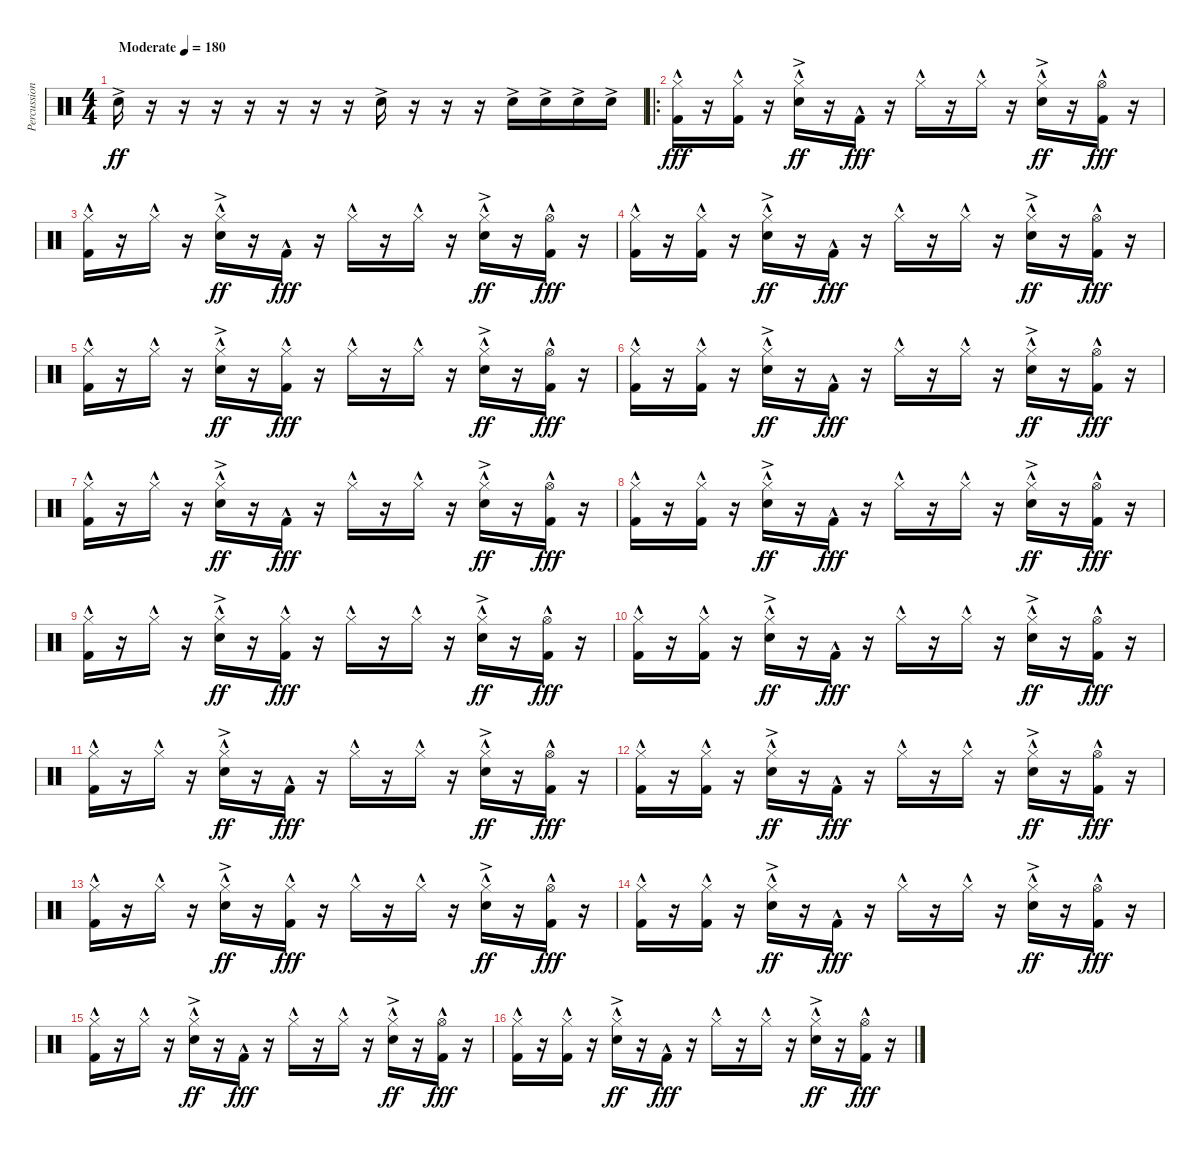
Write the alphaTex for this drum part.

\track ("Percussion" "Percussion") {instrument percussion}
\staff {score}
\articulation defaults
\ts (4 4)
\tempo (180 "Moderate")
\clef neutral
\ks c "Snare (hit) 2"{ac}.16{dy ff}
r.16 r.16 r.16 r.16 r.16 r.16 r.16 "Snare (hit) 2"{ac}.16 r.16 r.16 r.16 "Snare (hit) 2"{ac}.16 "Snare (hit) 2"{ac}.16 "Snare (hit) 2"{ac}.16 "Snare (hit) 2"{ac}.16 |
\ro
("Hi-Hat (closed)"{hac} "Kick (hit) 2"{hac}).16{dy fff} r.16 ("Hi-Hat (closed)"{hac} "Kick (hit) 2"{hac}).16 r.16 ("Hi-Hat (closed)"{hac} "Snare (hit) 2"{ac}).16{dy ff} r.16 "Kick (hit) 2"{hac}.16{dy fff} r.16 "Hi-Hat (closed)"{hac}.16 r.16 "Hi-Hat (closed)"{hac}.16 r.16 ("Hi-Hat (closed)"{hac} "Snare (hit) 2"{ac}).16{dy ff} r.16 ("Hi-Hat (open)"{hac} "Kick (hit) 2"{hac}).16{dy fff} r.16 |
("Hi-Hat (closed)"{hac} "Kick (hit) 2"{hac}).16 r.16 "Hi-Hat (closed)"{hac}.16 r.16 ("Hi-Hat (closed)"{hac} "Snare (hit) 2"{ac}).16{dy ff} r.16 "Kick (hit) 2"{hac}.16{dy fff} r.16 "Hi-Hat (closed)"{hac}.16 r.16 "Hi-Hat (closed)"{hac}.16 r.16 ("Hi-Hat (closed)"{hac} "Snare (hit) 2"{ac}).16{dy ff} r.16 ("Hi-Hat (open)"{hac} "Kick (hit) 2"{hac}).16{dy fff} r.16 |
("Hi-Hat (closed)"{hac} "Kick (hit) 2"{hac}).16 r.16 ("Hi-Hat (closed)"{hac} "Kick (hit) 2"{hac}).16 r.16 ("Hi-Hat (closed)"{hac} "Snare (hit) 2"{ac}).16{dy ff} r.16 "Kick (hit) 2"{hac}.16{dy fff} r.16 "Hi-Hat (closed)"{hac}.16 r.16 "Hi-Hat (closed)"{hac}.16 r.16 ("Hi-Hat (closed)"{hac} "Snare (hit) 2"{ac}).16{dy ff} r.16 ("Hi-Hat (open)"{hac} "Kick (hit) 2"{hac}).16{dy fff} r.16 |
("Hi-Hat (closed)"{hac} "Kick (hit) 2"{hac}).16 r.16 "Hi-Hat (closed)"{hac}.16 r.16 ("Hi-Hat (closed)"{hac} "Snare (hit) 2"{ac}).16{dy ff} r.16 ("Hi-Hat (closed)"{hac} "Kick (hit) 2"{hac}).16{dy fff} r.16 "Hi-Hat (closed)"{hac}.16 r.16 "Hi-Hat (closed)"{hac}.16 r.16 ("Hi-Hat (closed)"{hac} "Snare (hit) 2"{ac}).16{dy ff} r.16 ("Hi-Hat (open)"{hac} "Kick (hit) 2"{hac}).16{dy fff} r.16 |
("Hi-Hat (closed)"{hac} "Kick (hit) 2"{hac}).16 r.16 ("Hi-Hat (closed)"{hac} "Kick (hit) 2"{hac}).16 r.16 ("Hi-Hat (closed)"{hac} "Snare (hit) 2"{ac}).16{dy ff} r.16 "Kick (hit) 2"{hac}.16{dy fff} r.16 "Hi-Hat (closed)"{hac}.16 r.16 "Hi-Hat (closed)"{hac}.16 r.16 ("Hi-Hat (closed)"{hac} "Snare (hit) 2"{ac}).16{dy ff} r.16 ("Hi-Hat (open)"{hac} "Kick (hit) 2"{hac}).16{dy fff} r.16 |
("Hi-Hat (closed)"{hac} "Kick (hit) 2"{hac}).16 r.16 "Hi-Hat (closed)"{hac}.16 r.16 ("Hi-Hat (closed)"{hac} "Snare (hit) 2"{ac}).16{dy ff} r.16 "Kick (hit) 2"{hac}.16{dy fff} r.16 "Hi-Hat (closed)"{hac}.16 r.16 "Hi-Hat (closed)"{hac}.16 r.16 ("Hi-Hat (closed)"{hac} "Snare (hit) 2"{ac}).16{dy ff} r.16 ("Hi-Hat (open)"{hac} "Kick (hit) 2"{hac}).16{dy fff} r.16 |
("Hi-Hat (closed)"{hac} "Kick (hit) 2"{hac}).16 r.16 ("Hi-Hat (closed)"{hac} "Kick (hit) 2"{hac}).16 r.16 ("Hi-Hat (closed)"{hac} "Snare (hit) 2"{ac}).16{dy ff} r.16 "Kick (hit) 2"{hac}.16{dy fff} r.16 "Hi-Hat (closed)"{hac}.16 r.16 "Hi-Hat (closed)"{hac}.16 r.16 ("Hi-Hat (closed)"{hac} "Snare (hit) 2"{ac}).16{dy ff} r.16 ("Hi-Hat (open)"{hac} "Kick (hit) 2"{hac}).16{dy fff} r.16 |
("Hi-Hat (closed)"{hac} "Kick (hit) 2"{hac}).16 r.16 "Hi-Hat (closed)"{hac}.16 r.16 ("Hi-Hat (closed)"{hac} "Snare (hit) 2"{ac}).16{dy ff} r.16 ("Hi-Hat (closed)"{hac} "Kick (hit) 2"{hac}).16{dy fff} r.16 "Hi-Hat (closed)"{hac}.16 r.16 "Hi-Hat (closed)"{hac}.16 r.16 ("Hi-Hat (closed)"{hac} "Snare (hit) 2"{ac}).16{dy ff} r.16 ("Hi-Hat (open)"{hac} "Kick (hit) 2"{hac}).16{dy fff} r.16 |
("Hi-Hat (closed)"{hac} "Kick (hit) 2"{hac}).16 r.16 ("Hi-Hat (closed)"{hac} "Kick (hit) 2"{hac}).16 r.16 ("Hi-Hat (closed)"{hac} "Snare (hit) 2"{ac}).16{dy ff} r.16 "Kick (hit) 2"{hac}.16{dy fff} r.16 "Hi-Hat (closed)"{hac}.16 r.16 "Hi-Hat (closed)"{hac}.16 r.16 ("Hi-Hat (closed)"{hac} "Snare (hit) 2"{ac}).16{dy ff} r.16 ("Hi-Hat (open)"{hac} "Kick (hit) 2"{hac}).16{dy fff} r.16 |
("Hi-Hat (closed)"{hac} "Kick (hit) 2"{hac}).16 r.16 "Hi-Hat (closed)"{hac}.16 r.16 ("Hi-Hat (closed)"{hac} "Snare (hit) 2"{ac}).16{dy ff} r.16 "Kick (hit) 2"{hac}.16{dy fff} r.16 "Hi-Hat (closed)"{hac}.16 r.16 "Hi-Hat (closed)"{hac}.16 r.16 ("Hi-Hat (closed)"{hac} "Snare (hit) 2"{ac}).16{dy ff} r.16 ("Hi-Hat (open)"{hac} "Kick (hit) 2"{hac}).16{dy fff} r.16 |
("Hi-Hat (closed)"{hac} "Kick (hit) 2"{hac}).16 r.16 ("Hi-Hat (closed)"{hac} "Kick (hit) 2"{hac}).16 r.16 ("Hi-Hat (closed)"{hac} "Snare (hit) 2"{ac}).16{dy ff} r.16 "Kick (hit) 2"{hac}.16{dy fff} r.16 "Hi-Hat (closed)"{hac}.16 r.16 "Hi-Hat (closed)"{hac}.16 r.16 ("Hi-Hat (closed)"{hac} "Snare (hit) 2"{ac}).16{dy ff} r.16 ("Hi-Hat (open)"{hac} "Kick (hit) 2"{hac}).16{dy fff} r.16 |
("Hi-Hat (closed)"{hac} "Kick (hit) 2"{hac}).16 r.16 "Hi-Hat (closed)"{hac}.16 r.16 ("Hi-Hat (closed)"{hac} "Snare (hit) 2"{ac}).16{dy ff} r.16 ("Hi-Hat (closed)"{hac} "Kick (hit) 2"{hac}).16{dy fff} r.16 "Hi-Hat (closed)"{hac}.16 r.16 "Hi-Hat (closed)"{hac}.16 r.16 ("Hi-Hat (closed)"{hac} "Snare (hit) 2"{ac}).16{dy ff} r.16 ("Hi-Hat (open)"{hac} "Kick (hit) 2"{hac}).16{dy fff} r.16 |
("Hi-Hat (closed)"{hac} "Kick (hit) 2"{hac}).16 r.16 ("Hi-Hat (closed)"{hac} "Kick (hit) 2"{hac}).16 r.16 ("Hi-Hat (closed)"{hac} "Snare (hit) 2"{ac}).16{dy ff} r.16 "Kick (hit) 2"{hac}.16{dy fff} r.16 "Hi-Hat (closed)"{hac}.16 r.16 "Hi-Hat (closed)"{hac}.16 r.16 ("Hi-Hat (closed)"{hac} "Snare (hit) 2"{ac}).16{dy ff} r.16 ("Hi-Hat (open)"{hac} "Kick (hit) 2"{hac}).16{dy fff} r.16 |
("Hi-Hat (closed)"{hac} "Kick (hit) 2"{hac}).16 r.16 "Hi-Hat (closed)"{hac}.16 r.16 ("Hi-Hat (closed)"{hac} "Snare (hit) 2"{ac}).16{dy ff} r.16 "Kick (hit) 2"{hac}.16{dy fff} r.16 "Hi-Hat (closed)"{hac}.16 r.16 "Hi-Hat (closed)"{hac}.16 r.16 ("Hi-Hat (closed)"{hac} "Snare (hit) 2"{ac}).16{dy ff} r.16 ("Hi-Hat (open)"{hac} "Kick (hit) 2"{hac}).16{dy fff} r.16 |
("Hi-Hat (closed)"{hac} "Kick (hit) 2"{hac}).16 r.16 ("Hi-Hat (closed)"{hac} "Kick (hit) 2"{hac}).16 r.16 ("Hi-Hat (closed)"{hac} "Snare (hit) 2"{ac}).16{dy ff} r.16 "Kick (hit) 2"{hac}.16{dy fff} r.16 "Hi-Hat (closed)"{hac}.16 r.16 "Hi-Hat (closed)"{hac}.16 r.16 ("Hi-Hat (closed)"{hac} "Snare (hit) 2"{ac}).16{dy ff} r.16 ("Hi-Hat (open)"{hac} "Kick (hit) 2"{hac}).16{dy fff} r.16
